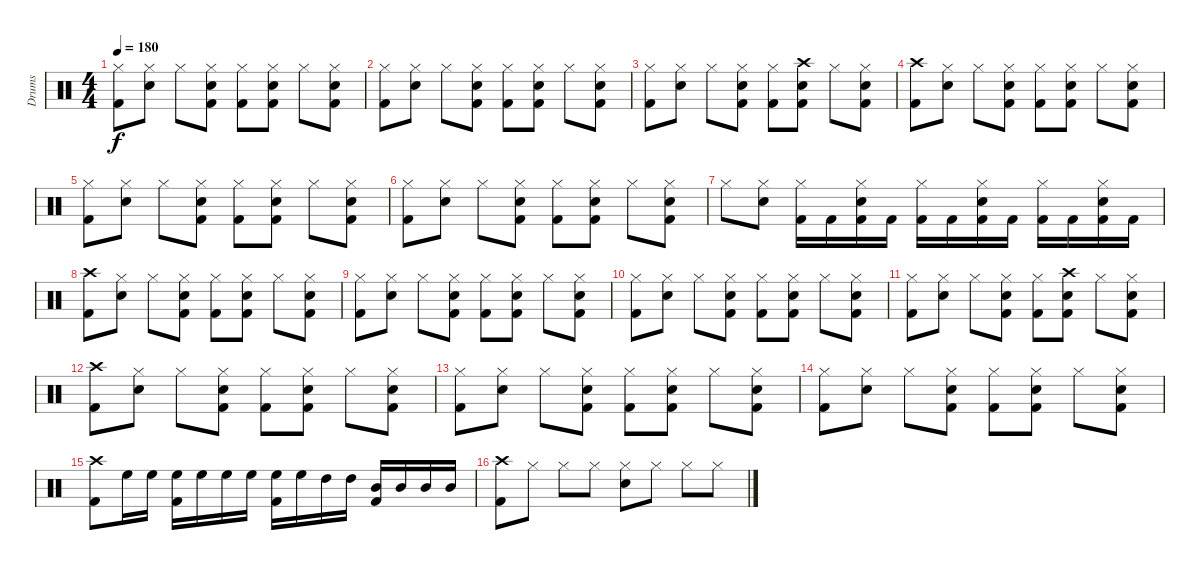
\track ("Drums" "Drums") {instrument percussion}
\staff {score}
\articulation defaults
\ts (4 4)
\tempo 180
\clef neutral
\ks c
("Hi-Hat (closed)" "Kick (hit) 2").8{dy f} ("Hi-Hat (closed)" "Snare (hit) 2").8 "Hi-Hat (closed)".8 ("Hi-Hat (closed)" "Snare (hit) 2" "Kick (hit) 2").8 ("Hi-Hat (closed)" "Kick (hit) 2").8 ("Hi-Hat (closed)" "Snare (hit) 2" "Kick (hit) 2").8 "Hi-Hat (closed)".8 ("Hi-Hat (closed)" "Snare (hit) 2" "Kick (hit) 2").8 |
("Hi-Hat (closed)" "Kick (hit) 2").8 ("Hi-Hat (closed)" "Snare (hit) 2").8 "Hi-Hat (closed)".8 ("Hi-Hat (closed)" "Snare (hit) 2" "Kick (hit) 2").8 ("Hi-Hat (closed)" "Kick (hit) 2").8 ("Hi-Hat (closed)" "Snare (hit) 2" "Kick (hit) 2").8 "Hi-Hat (closed)".8 ("Hi-Hat (closed)" "Snare (hit) 2" "Kick (hit) 2").8 |
("Hi-Hat (closed)" "Kick (hit) 2").8 ("Hi-Hat (closed)" "Snare (hit) 2").8 "Hi-Hat (closed)".8 ("Hi-Hat (closed)" "Snare (hit) 2" "Kick (hit) 2").8 ("Hi-Hat (closed)" "Kick (hit) 2").8 ("Crash high (hit)" "Snare (hit) 2" "Kick (hit) 2").8 "Hi-Hat (closed)".8 ("Hi-Hat (closed)" "Snare (hit) 2" "Kick (hit) 2").8 |
("Crash high (hit)" "Kick (hit) 2").8 ("Hi-Hat (closed)" "Snare (hit) 2").8 "Hi-Hat (closed)".8 ("Hi-Hat (closed)" "Snare (hit) 2" "Kick (hit) 2").8 ("Hi-Hat (closed)" "Kick (hit) 2").8 ("Hi-Hat (closed)" "Snare (hit) 2" "Kick (hit) 2").8 "Hi-Hat (closed)".8 ("Hi-Hat (closed)" "Snare (hit) 2" "Kick (hit) 2").8 |
("Hi-Hat (closed)" "Kick (hit) 2").8 ("Hi-Hat (closed)" "Snare (hit) 2").8 "Hi-Hat (closed)".8 ("Hi-Hat (closed)" "Snare (hit) 2" "Kick (hit) 2").8 ("Hi-Hat (closed)" "Kick (hit) 2").8 ("Hi-Hat (closed)" "Snare (hit) 2" "Kick (hit) 2").8 "Hi-Hat (closed)".8 ("Hi-Hat (closed)" "Snare (hit) 2" "Kick (hit) 2").8 |
("Hi-Hat (closed)" "Kick (hit) 2").8 ("Hi-Hat (closed)" "Snare (hit) 2").8 "Hi-Hat (closed)".8 ("Hi-Hat (closed)" "Snare (hit) 2" "Kick (hit) 2").8 ("Hi-Hat (closed)" "Kick (hit) 2").8 ("Hi-Hat (closed)" "Snare (hit) 2" "Kick (hit) 2").8 "Hi-Hat (closed)".8 ("Hi-Hat (closed)" "Snare (hit) 2" "Kick (hit) 2").8 |
"Hi-Hat (closed)".8 ("Hi-Hat (closed)" "Snare (hit) 2").8 ("Hi-Hat (closed)" "Kick (hit) 2").16 "Kick (hit) 2".16 ("Hi-Hat (closed)" "Snare (hit) 2" "Kick (hit) 2").16 "Kick (hit) 2".16 ("Hi-Hat (closed)" "Kick (hit) 2").16 "Kick (hit) 2".16 ("Hi-Hat (closed)" "Snare (hit) 2" "Kick (hit) 2").16 "Kick (hit) 2".16 ("Hi-Hat (closed)" "Kick (hit) 2").16 "Kick (hit) 2".16 ("Hi-Hat (closed)" "Snare (hit) 2" "Kick (hit) 2").16 "Kick (hit) 2".16 |
("Crash high (hit)" "Kick (hit) 2").8 ("Hi-Hat (closed)" "Snare (hit) 2").8 "Hi-Hat (closed)".8 ("Hi-Hat (closed)" "Snare (hit) 2" "Kick (hit) 2").8 ("Hi-Hat (closed)" "Kick (hit) 2").8 ("Hi-Hat (closed)" "Snare (hit) 2" "Kick (hit) 2").8 "Hi-Hat (closed)".8 ("Hi-Hat (closed)" "Snare (hit) 2" "Kick (hit) 2").8 |
("Hi-Hat (closed)" "Kick (hit) 2").8 ("Hi-Hat (closed)" "Snare (hit) 2").8 "Hi-Hat (closed)".8 ("Hi-Hat (closed)" "Snare (hit) 2" "Kick (hit) 2").8 ("Hi-Hat (closed)" "Kick (hit) 2").8 ("Hi-Hat (closed)" "Snare (hit) 2" "Kick (hit) 2").8 "Hi-Hat (closed)".8 ("Hi-Hat (closed)" "Snare (hit) 2" "Kick (hit) 2").8 |
("Hi-Hat (closed)" "Kick (hit) 2").8 ("Hi-Hat (closed)" "Snare (hit) 2").8 "Hi-Hat (closed)".8 ("Hi-Hat (closed)" "Snare (hit) 2" "Kick (hit) 2").8 ("Hi-Hat (closed)" "Kick (hit) 2").8 ("Hi-Hat (closed)" "Snare (hit) 2" "Kick (hit) 2").8 "Hi-Hat (closed)".8 ("Hi-Hat (closed)" "Snare (hit) 2" "Kick (hit) 2").8 |
("Hi-Hat (closed)" "Kick (hit) 2").8 ("Hi-Hat (closed)" "Snare (hit) 2").8 "Hi-Hat (closed)".8 ("Hi-Hat (closed)" "Snare (hit) 2" "Kick (hit) 2").8 ("Hi-Hat (closed)" "Kick (hit) 2").8 ("Crash high (hit)" "Snare (hit) 2" "Kick (hit) 2").8 "Hi-Hat (closed)".8 ("Hi-Hat (closed)" "Snare (hit) 2" "Kick (hit) 2").8 |
("Crash high (hit)" "Kick (hit) 2").8 ("Hi-Hat (closed)" "Snare (hit) 2").8 "Hi-Hat (closed)".8 ("Hi-Hat (closed)" "Snare (hit) 2" "Kick (hit) 2").8 ("Hi-Hat (closed)" "Kick (hit) 2").8 ("Hi-Hat (closed)" "Snare (hit) 2" "Kick (hit) 2").8 "Hi-Hat (closed)".8 ("Hi-Hat (closed)" "Snare (hit) 2" "Kick (hit) 2").8 |
("Hi-Hat (closed)" "Kick (hit) 2").8 ("Hi-Hat (closed)" "Snare (hit) 2").8 "Hi-Hat (closed)".8 ("Hi-Hat (closed)" "Snare (hit) 2" "Kick (hit) 2").8 ("Hi-Hat (closed)" "Kick (hit) 2").8 ("Hi-Hat (closed)" "Snare (hit) 2" "Kick (hit) 2").8 "Hi-Hat (closed)".8 ("Hi-Hat (closed)" "Snare (hit) 2" "Kick (hit) 2").8 |
("Hi-Hat (closed)" "Kick (hit) 2").8 ("Hi-Hat (closed)" "Snare (hit) 2").8 "Hi-Hat (closed)".8 ("Hi-Hat (closed)" "Snare (hit) 2" "Kick (hit) 2").8 ("Hi-Hat (closed)" "Kick (hit) 2").8 ("Hi-Hat (closed)" "Snare (hit) 2" "Kick (hit) 2").8 "Hi-Hat (closed)".8 ("Hi-Hat (closed)" "Snare (hit) 2" "Kick (hit) 2").8 |
("Crash high (hit)" "Kick (hit) 2").8 "High Floor Tom (hit)".16 "High Floor Tom (hit)".16 ("High Floor Tom (hit)" "Kick (hit) 2").16 "High Floor Tom (hit)".16 "High Floor Tom (hit)".16 "High Floor Tom (hit)".16 ("High Floor Tom (hit)" "Kick (hit) 2").16 "High Floor Tom (hit)".16 "High Tom (hit)".16 "High Tom (hit)".16 ("Mid Tom (hit)" "Kick (hit) 2").16 "Mid Tom (hit)".16 "Mid Tom (hit)".16 "Mid Tom (hit)".16 |
("Crash high (hit)" "Kick (hit) 2").8 "Hi-Hat (closed)".8 "Hi-Hat (closed)".8 "Hi-Hat (closed)".8 ("Hi-Hat (closed)" "Snare (hit) 2").8 "Hi-Hat (closed)".8 "Hi-Hat (closed)".8 "Hi-Hat (closed)".8
